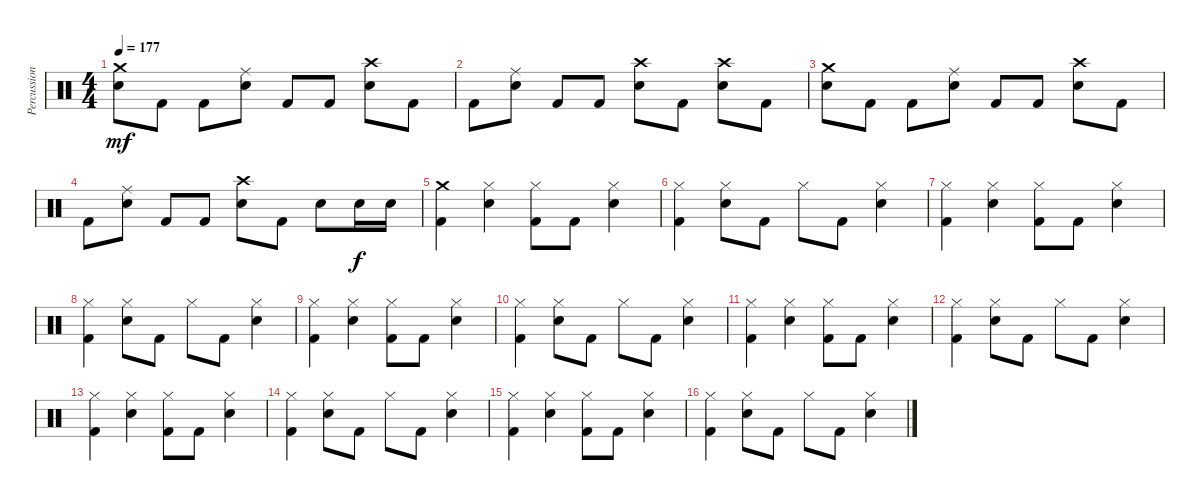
\track ("Percussion" "Percussion") {instrument percussion}
\staff {score}
\articulation defaults
\ts (4 4)
\tempo 177
\clef neutral
\ks c
("Crash medium (hit)" "Electric Snare (hit)").8{dy mf} "Kick (hit) 2".8 "Kick (hit) 2".8 ("Ride (middle)" "Electric Snare (hit)").8 "Kick (hit) 2".8 "Kick (hit) 2".8 ("Crash high (hit)" "Electric Snare (hit)").8 "Kick (hit) 2".8 |
"Kick (hit) 2".8 ("Ride (middle)" "Electric Snare (hit)").8 "Kick (hit) 2".8 "Kick (hit) 2".8 ("Crash high (hit)" "Electric Snare (hit)").8 "Kick (hit) 2".8 ("Crash high (hit)" "Electric Snare (hit)").8 "Kick (hit) 2".8 |
("Crash medium (hit)" "Electric Snare (hit)").8 "Kick (hit) 2".8 "Kick (hit) 2".8 ("Ride (middle)" "Electric Snare (hit)").8 "Kick (hit) 2".8 "Kick (hit) 2".8 ("Crash high (hit)" "Electric Snare (hit)").8 "Kick (hit) 2".8 |
"Kick (hit) 2".8 ("Ride (middle)" "Electric Snare (hit)").8 "Kick (hit) 2".8 "Kick (hit) 2".8 ("Crash high (hit)" "Electric Snare (hit)").8 "Kick (hit) 2".8 "Electric Snare (hit)".8 "Electric Snare (hit)".16{dy f} "Electric Snare (hit)".16 |
("Crash medium (hit)" "Kick (hit) 2").4 ("Hi-Hat (closed)" "Electric Snare (hit)").4 ("Hi-Hat (closed)" "Kick (hit) 2").8 "Kick (hit) 2".8 ("Hi-Hat (closed)" "Electric Snare (hit)").4 |
("Hi-Hat (closed)" "Kick (hit) 2").4 ("Hi-Hat (closed)" "Electric Snare (hit)").8 "Kick (hit) 2".8 "Hi-Hat (closed)".8 "Kick (hit) 2".8 ("Hi-Hat (closed)" "Electric Snare (hit)").4 |
("Hi-Hat (closed)" "Kick (hit) 2").4 ("Hi-Hat (closed)" "Electric Snare (hit)").4 ("Hi-Hat (closed)" "Kick (hit) 2").8 "Kick (hit) 2".8 ("Hi-Hat (closed)" "Electric Snare (hit)").4 |
("Hi-Hat (closed)" "Kick (hit) 2").4 ("Hi-Hat (closed)" "Electric Snare (hit)").8 "Kick (hit) 2".8 "Hi-Hat (closed)".8 "Kick (hit) 2".8 ("Hi-Hat (closed)" "Electric Snare (hit)").4 |
("Hi-Hat (closed)" "Kick (hit) 2").4 ("Hi-Hat (closed)" "Electric Snare (hit)").4 ("Hi-Hat (closed)" "Kick (hit) 2").8 "Kick (hit) 2".8 ("Hi-Hat (closed)" "Electric Snare (hit)").4 |
("Hi-Hat (closed)" "Kick (hit) 2").4 ("Hi-Hat (closed)" "Electric Snare (hit)").8 "Kick (hit) 2".8 "Hi-Hat (closed)".8 "Kick (hit) 2".8 ("Hi-Hat (closed)" "Electric Snare (hit)").4 |
("Hi-Hat (closed)" "Kick (hit) 2").4 ("Hi-Hat (closed)" "Electric Snare (hit)").4 ("Hi-Hat (closed)" "Kick (hit) 2").8 "Kick (hit) 2".8 ("Hi-Hat (closed)" "Electric Snare (hit)").4 |
("Hi-Hat (closed)" "Kick (hit) 2").4 ("Hi-Hat (closed)" "Electric Snare (hit)").8 "Kick (hit) 2".8 "Hi-Hat (closed)".8 "Kick (hit) 2".8 ("Hi-Hat (closed)" "Electric Snare (hit)").4 |
("Hi-Hat (closed)" "Kick (hit) 2").4 ("Hi-Hat (closed)" "Electric Snare (hit)").4 ("Hi-Hat (closed)" "Kick (hit) 2").8 "Kick (hit) 2".8 ("Hi-Hat (closed)" "Electric Snare (hit)").4 |
("Hi-Hat (closed)" "Kick (hit) 2").4 ("Hi-Hat (closed)" "Electric Snare (hit)").8 "Kick (hit) 2".8 "Hi-Hat (closed)".8 "Kick (hit) 2".8 ("Hi-Hat (closed)" "Electric Snare (hit)").4 |
("Hi-Hat (closed)" "Kick (hit) 2").4 ("Hi-Hat (closed)" "Electric Snare (hit)").4 ("Hi-Hat (closed)" "Kick (hit) 2").8 "Kick (hit) 2".8 ("Hi-Hat (closed)" "Electric Snare (hit)").4 |
("Hi-Hat (closed)" "Kick (hit) 2").4 ("Hi-Hat (closed)" "Electric Snare (hit)").8 "Kick (hit) 2".8 "Hi-Hat (closed)".8 "Kick (hit) 2".8 ("Hi-Hat (closed)" "Electric Snare (hit)").4
